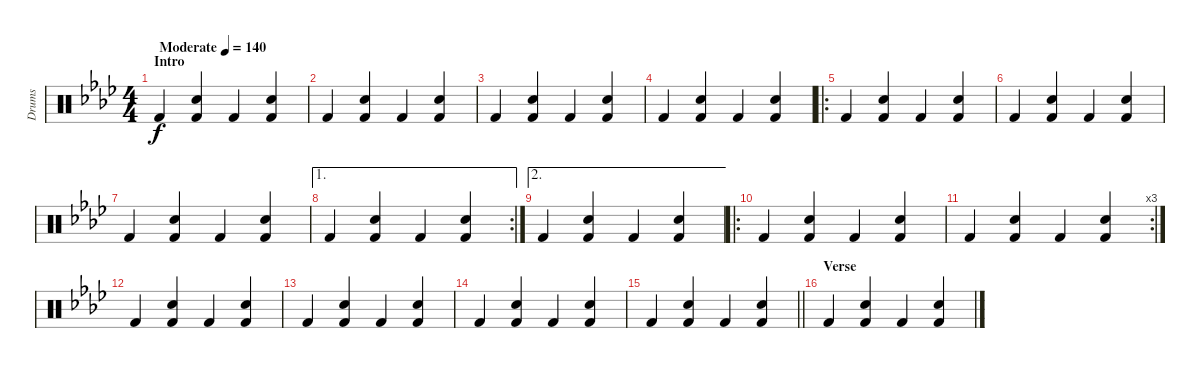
\track ("Drums" "Drums") {instrument percussion}
\staff {score}
\articulation defaults
\ts (4 4)
\section ("" "Intro")
\tempo (140 "Moderate")
\clef neutral
\ks ab "Kick (hit) 2".4{dy f}
("Electric Snare (hit)" "Kick (hit) 2").4 "Kick (hit) 2".4 ("Electric Snare (hit)" "Kick (hit) 2").4 |
"Kick (hit) 2".4 ("Electric Snare (hit)" "Kick (hit) 2").4 "Kick (hit) 2".4 ("Electric Snare (hit)" "Kick (hit) 2").4 |
"Kick (hit) 2".4 ("Electric Snare (hit)" "Kick (hit) 2").4 "Kick (hit) 2".4 ("Electric Snare (hit)" "Kick (hit) 2").4 |
"Kick (hit) 2".4 ("Electric Snare (hit)" "Kick (hit) 2").4 "Kick (hit) 2".4 ("Electric Snare (hit)" "Kick (hit) 2").4 |
\ro "Kick (hit) 2".4
("Electric Snare (hit)" "Kick (hit) 2").4 "Kick (hit) 2".4 ("Electric Snare (hit)" "Kick (hit) 2").4 |
"Kick (hit) 2".4 ("Electric Snare (hit)" "Kick (hit) 2").4 "Kick (hit) 2".4 ("Electric Snare (hit)" "Kick (hit) 2").4 |
"Kick (hit) 2".4 ("Electric Snare (hit)" "Kick (hit) 2").4 "Kick (hit) 2".4 ("Electric Snare (hit)" "Kick (hit) 2").4 |
\ae 1
\rc 2 "Kick (hit) 2".4
("Electric Snare (hit)" "Kick (hit) 2").4 "Kick (hit) 2".4 ("Electric Snare (hit)" "Kick (hit) 2").4 |
\ae 2 "Kick (hit) 2".4
("Electric Snare (hit)" "Kick (hit) 2").4 "Kick (hit) 2".4 ("Electric Snare (hit)" "Kick (hit) 2").4 |
\ro "Kick (hit) 2".4
("Electric Snare (hit)" "Kick (hit) 2").4 "Kick (hit) 2".4 ("Electric Snare (hit)" "Kick (hit) 2").4 |
\rc 3 "Kick (hit) 2".4
("Electric Snare (hit)" "Kick (hit) 2").4 "Kick (hit) 2".4 ("Electric Snare (hit)" "Kick (hit) 2").4 |
"Kick (hit) 2".4 ("Electric Snare (hit)" "Kick (hit) 2").4 "Kick (hit) 2".4 ("Electric Snare (hit)" "Kick (hit) 2").4 |
"Kick (hit) 2".4 ("Electric Snare (hit)" "Kick (hit) 2").4 "Kick (hit) 2".4 ("Electric Snare (hit)" "Kick (hit) 2").4 |
"Kick (hit) 2".4 ("Electric Snare (hit)" "Kick (hit) 2").4 "Kick (hit) 2".4 ("Electric Snare (hit)" "Kick (hit) 2").4 |
\barLineRight lightlight "Kick (hit) 2".4
("Electric Snare (hit)" "Kick (hit) 2").4 "Kick (hit) 2".4 ("Electric Snare (hit)" "Kick (hit) 2").4 |
\section ("" "Verse")
"Kick (hit) 2".4 ("Electric Snare (hit)" "Kick (hit) 2").4 "Kick (hit) 2".4 ("Electric Snare (hit)" "Kick (hit) 2").4
